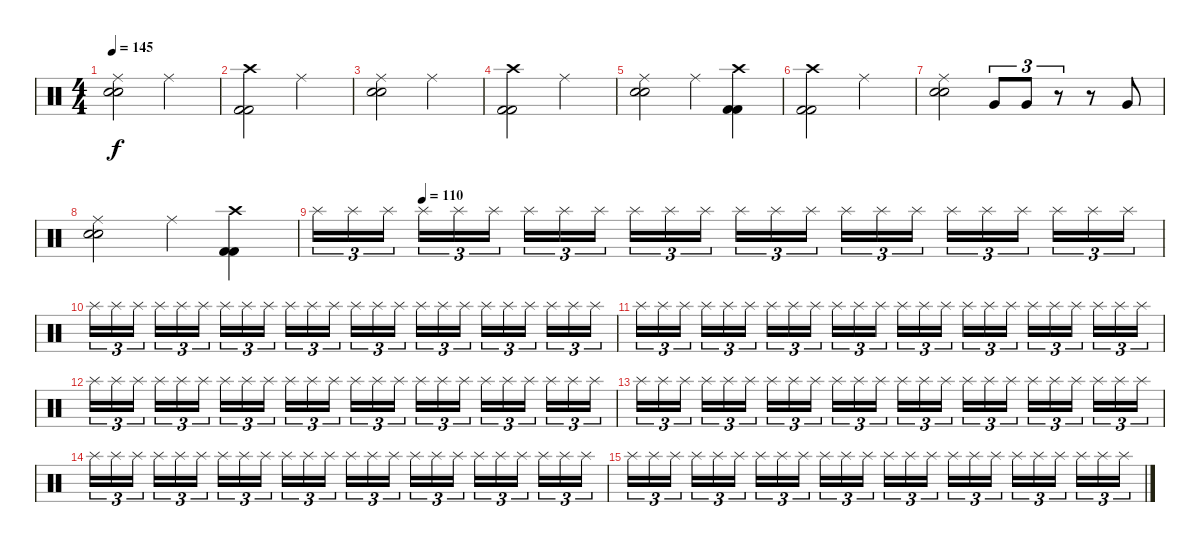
\track "" {instrument percussion}
\staff {score}
\articulation defaults
\ts (4 4)
\tempo 145
\clef neutral
\ks c
("Ride (middle)" "Snare (hit) 2" "Snare (hit) 2").2{dy f} "Ride (middle)".2 |
("Crash high (hit)" "Kick (hit) 2" "Kick (hit) 2").2 "Ride (middle)".2 |
("Ride (middle)" "Snare (hit) 2" "Snare (hit) 2").2 "Ride (middle)".2 |
("Crash high (hit)" "Kick (hit) 2" "Kick (hit) 2").2 "Ride (middle)".2 |
("Ride (middle)" "Snare (hit) 2" "Snare (hit) 2").2 "Ride (middle)".4 ("Crash high (hit)" "Kick (hit) 2" "Kick (hit) 2").4 |
("Crash high (hit)" "Kick (hit) 2" "Kick (hit) 2").2 "Ride (middle)".2 |
("Ride (middle)" "Snare (hit) 2" "Snare (hit) 2").2 "Very Low Tom (hit)".8{tu (3 2)} "Very Low Tom (hit)".8{tu (3 2)} r.8{tu (3 2)} r.8 "Very Low Tom (hit)".8 |
("Ride (middle)" "Snare (hit) 2" "Snare (hit) 2").2 "Ride (middle)".4 ("Crash high (hit)" "Kick (hit) 2" "Kick (hit) 2").4 |
\tempo (110 0.125)
"Splash (hit)".16{tu (3 2) volume 11} "Splash (hit)".16{tu (3 2)} "Splash (hit)".16{tu (3 2)} "Splash (hit)".16{tu (3 2)} "Splash (hit)".16{tu (3 2)} "Splash (hit)".16{tu (3 2)} "Splash (hit)".16{tu (3 2)} "Splash (hit)".16{tu (3 2)} "Splash (hit)".16{tu (3 2)} "Splash (hit)".16{tu (3 2)} "Splash (hit)".16{tu (3 2)} "Splash (hit)".16{tu (3 2)} "Splash (hit)".16{tu (3 2)} "Splash (hit)".16{tu (3 2)} "Splash (hit)".16{tu (3 2)} "Splash (hit)".16{tu (3 2)} "Splash (hit)".16{tu (3 2)} "Splash (hit)".16{tu (3 2)} "Splash (hit)".16{tu (3 2)} "Splash (hit)".16{tu (3 2)} "Splash (hit)".16{tu (3 2)} "Splash (hit)".16{tu (3 2)} "Splash (hit)".16{tu (3 2)} "Splash (hit)".16{tu (3 2)} |
"Splash (hit)".16{tu (3 2) volume 11} "Splash (hit)".16{tu (3 2)} "Splash (hit)".16{tu (3 2)} "Splash (hit)".16{tu (3 2)} "Splash (hit)".16{tu (3 2)} "Splash (hit)".16{tu (3 2)} "Splash (hit)".16{tu (3 2)} "Splash (hit)".16{tu (3 2)} "Splash (hit)".16{tu (3 2)} "Splash (hit)".16{tu (3 2)} "Splash (hit)".16{tu (3 2)} "Splash (hit)".16{tu (3 2)} "Splash (hit)".16{tu (3 2)} "Splash (hit)".16{tu (3 2)} "Splash (hit)".16{tu (3 2)} "Splash (hit)".16{tu (3 2)} "Splash (hit)".16{tu (3 2)} "Splash (hit)".16{tu (3 2)} "Splash (hit)".16{tu (3 2)} "Splash (hit)".16{tu (3 2)} "Splash (hit)".16{tu (3 2)} "Splash (hit)".16{tu (3 2)} "Splash (hit)".16{tu (3 2)} "Splash (hit)".16{tu (3 2)} |
"Splash (hit)".16{tu (3 2) volume 11} "Splash (hit)".16{tu (3 2)} "Splash (hit)".16{tu (3 2)} "Splash (hit)".16{tu (3 2)} "Splash (hit)".16{tu (3 2)} "Splash (hit)".16{tu (3 2)} "Splash (hit)".16{tu (3 2)} "Splash (hit)".16{tu (3 2)} "Splash (hit)".16{tu (3 2)} "Splash (hit)".16{tu (3 2)} "Splash (hit)".16{tu (3 2)} "Splash (hit)".16{tu (3 2)} "Splash (hit)".16{tu (3 2)} "Splash (hit)".16{tu (3 2)} "Splash (hit)".16{tu (3 2)} "Splash (hit)".16{tu (3 2)} "Splash (hit)".16{tu (3 2)} "Splash (hit)".16{tu (3 2)} "Splash (hit)".16{tu (3 2)} "Splash (hit)".16{tu (3 2)} "Splash (hit)".16{tu (3 2)} "Splash (hit)".16{tu (3 2)} "Splash (hit)".16{tu (3 2)} "Splash (hit)".16{tu (3 2)} |
"Splash (hit)".16{tu (3 2) volume 11} "Splash (hit)".16{tu (3 2)} "Splash (hit)".16{tu (3 2)} "Splash (hit)".16{tu (3 2)} "Splash (hit)".16{tu (3 2)} "Splash (hit)".16{tu (3 2)} "Splash (hit)".16{tu (3 2)} "Splash (hit)".16{tu (3 2)} "Splash (hit)".16{tu (3 2)} "Splash (hit)".16{tu (3 2)} "Splash (hit)".16{tu (3 2)} "Splash (hit)".16{tu (3 2)} "Splash (hit)".16{tu (3 2)} "Splash (hit)".16{tu (3 2)} "Splash (hit)".16{tu (3 2)} "Splash (hit)".16{tu (3 2)} "Splash (hit)".16{tu (3 2)} "Splash (hit)".16{tu (3 2)} "Splash (hit)".16{tu (3 2)} "Splash (hit)".16{tu (3 2)} "Splash (hit)".16{tu (3 2)} "Splash (hit)".16{tu (3 2)} "Splash (hit)".16{tu (3 2)} "Splash (hit)".16{tu (3 2)} |
"Splash (hit)".16{tu (3 2) volume 11} "Splash (hit)".16{tu (3 2)} "Splash (hit)".16{tu (3 2)} "Splash (hit)".16{tu (3 2)} "Splash (hit)".16{tu (3 2)} "Splash (hit)".16{tu (3 2)} "Splash (hit)".16{tu (3 2)} "Splash (hit)".16{tu (3 2)} "Splash (hit)".16{tu (3 2)} "Splash (hit)".16{tu (3 2)} "Splash (hit)".16{tu (3 2)} "Splash (hit)".16{tu (3 2)} "Splash (hit)".16{tu (3 2)} "Splash (hit)".16{tu (3 2)} "Splash (hit)".16{tu (3 2)} "Splash (hit)".16{tu (3 2)} "Splash (hit)".16{tu (3 2)} "Splash (hit)".16{tu (3 2)} "Splash (hit)".16{tu (3 2)} "Splash (hit)".16{tu (3 2)} "Splash (hit)".16{tu (3 2)} "Splash (hit)".16{tu (3 2)} "Splash (hit)".16{tu (3 2)} "Splash (hit)".16{tu (3 2)} |
"Splash (hit)".16{tu (3 2) volume 11} "Splash (hit)".16{tu (3 2)} "Splash (hit)".16{tu (3 2)} "Splash (hit)".16{tu (3 2)} "Splash (hit)".16{tu (3 2)} "Splash (hit)".16{tu (3 2)} "Splash (hit)".16{tu (3 2)} "Splash (hit)".16{tu (3 2)} "Splash (hit)".16{tu (3 2)} "Splash (hit)".16{tu (3 2)} "Splash (hit)".16{tu (3 2)} "Splash (hit)".16{tu (3 2)} "Splash (hit)".16{tu (3 2)} "Splash (hit)".16{tu (3 2)} "Splash (hit)".16{tu (3 2)} "Splash (hit)".16{tu (3 2)} "Splash (hit)".16{tu (3 2)} "Splash (hit)".16{tu (3 2)} "Splash (hit)".16{tu (3 2)} "Splash (hit)".16{tu (3 2)} "Splash (hit)".16{tu (3 2)} "Splash (hit)".16{tu (3 2)} "Splash (hit)".16{tu (3 2)} "Splash (hit)".16{tu (3 2)} |
"Splash (hit)".16{tu (3 2) volume 11} "Splash (hit)".16{tu (3 2)} "Splash (hit)".16{tu (3 2)} "Splash (hit)".16{tu (3 2)} "Splash (hit)".16{tu (3 2)} "Splash (hit)".16{tu (3 2)} "Splash (hit)".16{tu (3 2)} "Splash (hit)".16{tu (3 2)} "Splash (hit)".16{tu (3 2)} "Splash (hit)".16{tu (3 2)} "Splash (hit)".16{tu (3 2)} "Splash (hit)".16{tu (3 2)} "Splash (hit)".16{tu (3 2)} "Splash (hit)".16{tu (3 2)} "Splash (hit)".16{tu (3 2)} "Splash (hit)".16{tu (3 2)} "Splash (hit)".16{tu (3 2)} "Splash (hit)".16{tu (3 2)} "Splash (hit)".16{tu (3 2)} "Splash (hit)".16{tu (3 2)} "Splash (hit)".16{tu (3 2)} "Splash (hit)".16{tu (3 2)} "Splash (hit)".16{tu (3 2)} "Splash (hit)".16{tu (3 2)}
